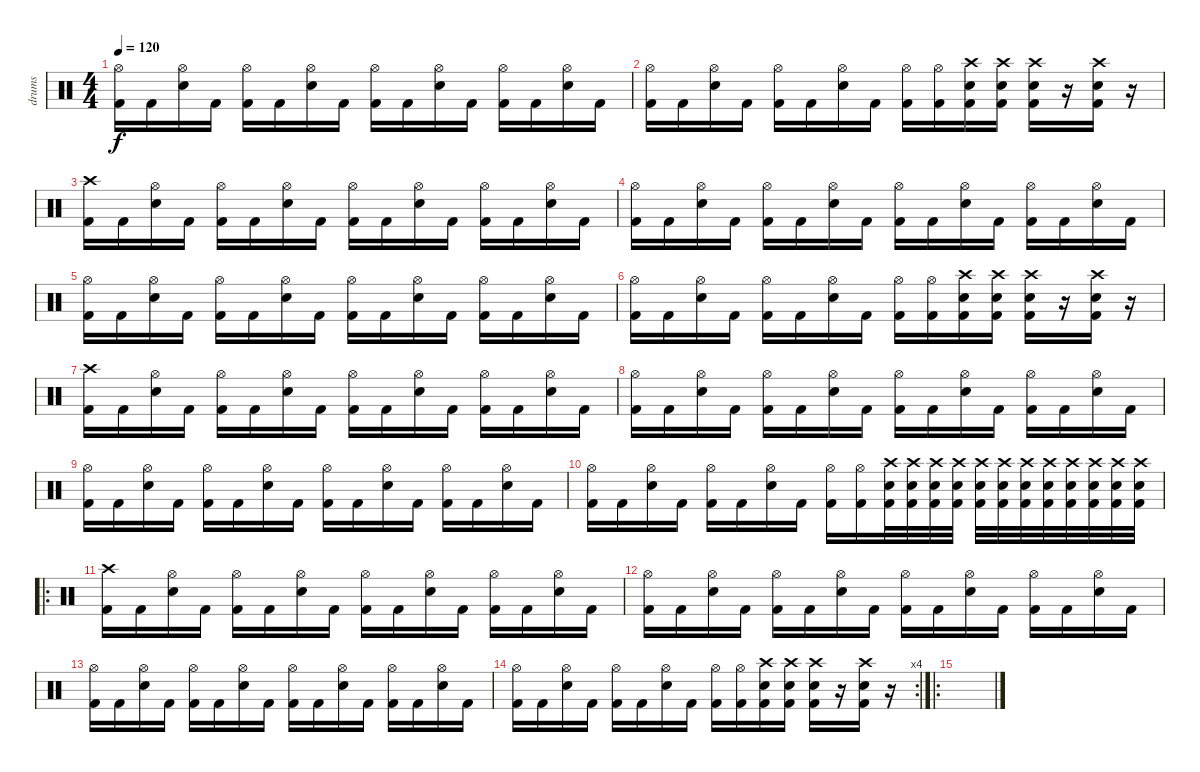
\track ("drums" "drums") {instrument percussion}
\staff {score}
\articulation defaults
\ts (4 4)
\tempo 120
\clef neutral
\ks c
("Hi-Hat (open)" "Kick (hit) 2").16{dy f} "Kick (hit) 2".16 ("Hi-Hat (open)" "Electric Snare (hit)").16 "Kick (hit) 2".16 ("Hi-Hat (open)" "Kick (hit) 2").16 "Kick (hit) 2".16 ("Hi-Hat (open)" "Electric Snare (hit)").16 "Kick (hit) 2".16 ("Hi-Hat (open)" "Kick (hit) 2").16 "Kick (hit) 2".16 ("Hi-Hat (open)" "Electric Snare (hit)").16 "Kick (hit) 2".16 ("Hi-Hat (open)" "Kick (hit) 2").16 "Kick (hit) 2".16 ("Hi-Hat (open)" "Electric Snare (hit)").16 "Kick (hit) 2".16 |
("Hi-Hat (open)" "Kick (hit) 2").16 "Kick (hit) 2".16 ("Hi-Hat (open)" "Electric Snare (hit)").16 "Kick (hit) 2".16 ("Hi-Hat (open)" "Kick (hit) 2").16 "Kick (hit) 2".16 ("Hi-Hat (open)" "Electric Snare (hit)").16 "Kick (hit) 2".16 ("Hi-Hat (open)" "Kick (hit) 2").16 ("Hi-Hat (open)" "Kick (hit) 2").16 ("Crash high (hit)" "Kick (hit) 2" "Electric Snare (hit)").16 ("Crash high (hit)" "Kick (hit) 2" "Electric Snare (hit)").16 ("Crash high (hit)" "Kick (hit) 2" "Electric Snare (hit)").16 r.16 ("Crash high (hit)" "Kick (hit) 2" "Electric Snare (hit)").16 r.16 |
("Crash high (hit)" "Kick (hit) 2").16 "Kick (hit) 2".16 ("Hi-Hat (open)" "Electric Snare (hit)").16 "Kick (hit) 2".16 ("Hi-Hat (open)" "Kick (hit) 2").16 "Kick (hit) 2".16 ("Hi-Hat (open)" "Electric Snare (hit)").16 "Kick (hit) 2".16 ("Hi-Hat (open)" "Kick (hit) 2").16 "Kick (hit) 2".16 ("Hi-Hat (open)" "Electric Snare (hit)").16 "Kick (hit) 2".16 ("Hi-Hat (open)" "Kick (hit) 2").16 "Kick (hit) 2".16 ("Hi-Hat (open)" "Electric Snare (hit)").16 "Kick (hit) 2".16 |
("Hi-Hat (open)" "Kick (hit) 2").16 "Kick (hit) 2".16 ("Hi-Hat (open)" "Electric Snare (hit)").16 "Kick (hit) 2".16 ("Hi-Hat (open)" "Kick (hit) 2").16 "Kick (hit) 2".16 ("Hi-Hat (open)" "Electric Snare (hit)").16 "Kick (hit) 2".16 ("Hi-Hat (open)" "Kick (hit) 2").16 "Kick (hit) 2".16 ("Hi-Hat (open)" "Electric Snare (hit)").16 "Kick (hit) 2".16 ("Hi-Hat (open)" "Kick (hit) 2").16 "Kick (hit) 2".16 ("Hi-Hat (open)" "Electric Snare (hit)").16 "Kick (hit) 2".16 |
("Hi-Hat (open)" "Kick (hit) 2").16 "Kick (hit) 2".16 ("Hi-Hat (open)" "Electric Snare (hit)").16 "Kick (hit) 2".16 ("Hi-Hat (open)" "Kick (hit) 2").16 "Kick (hit) 2".16 ("Hi-Hat (open)" "Electric Snare (hit)").16 "Kick (hit) 2".16 ("Hi-Hat (open)" "Kick (hit) 2").16 "Kick (hit) 2".16 ("Hi-Hat (open)" "Electric Snare (hit)").16 "Kick (hit) 2".16 ("Hi-Hat (open)" "Kick (hit) 2").16 "Kick (hit) 2".16 ("Hi-Hat (open)" "Electric Snare (hit)").16 "Kick (hit) 2".16 |
("Hi-Hat (open)" "Kick (hit) 2").16 "Kick (hit) 2".16 ("Hi-Hat (open)" "Electric Snare (hit)").16 "Kick (hit) 2".16 ("Hi-Hat (open)" "Kick (hit) 2").16 "Kick (hit) 2".16 ("Hi-Hat (open)" "Electric Snare (hit)").16 "Kick (hit) 2".16 ("Hi-Hat (open)" "Kick (hit) 2").16 ("Hi-Hat (open)" "Kick (hit) 2").16 ("Crash high (hit)" "Kick (hit) 2" "Electric Snare (hit)").16 ("Crash high (hit)" "Kick (hit) 2" "Electric Snare (hit)").16 ("Crash high (hit)" "Kick (hit) 2" "Electric Snare (hit)").16 r.16 ("Crash high (hit)" "Kick (hit) 2" "Electric Snare (hit)").16 r.16 |
("Crash high (hit)" "Kick (hit) 2").16 "Kick (hit) 2".16 ("Hi-Hat (open)" "Electric Snare (hit)").16 "Kick (hit) 2".16 ("Hi-Hat (open)" "Kick (hit) 2").16 "Kick (hit) 2".16 ("Hi-Hat (open)" "Electric Snare (hit)").16 "Kick (hit) 2".16 ("Hi-Hat (open)" "Kick (hit) 2").16 "Kick (hit) 2".16 ("Hi-Hat (open)" "Electric Snare (hit)").16 "Kick (hit) 2".16 ("Hi-Hat (open)" "Kick (hit) 2").16 "Kick (hit) 2".16 ("Hi-Hat (open)" "Electric Snare (hit)").16 "Kick (hit) 2".16 |
("Hi-Hat (open)" "Kick (hit) 2").16 "Kick (hit) 2".16 ("Hi-Hat (open)" "Electric Snare (hit)").16 "Kick (hit) 2".16 ("Hi-Hat (open)" "Kick (hit) 2").16 "Kick (hit) 2".16 ("Hi-Hat (open)" "Electric Snare (hit)").16 "Kick (hit) 2".16 ("Hi-Hat (open)" "Kick (hit) 2").16 "Kick (hit) 2".16 ("Hi-Hat (open)" "Electric Snare (hit)").16 "Kick (hit) 2".16 ("Hi-Hat (open)" "Kick (hit) 2").16 "Kick (hit) 2".16 ("Hi-Hat (open)" "Electric Snare (hit)").16 "Kick (hit) 2".16 |
("Hi-Hat (open)" "Kick (hit) 2").16 "Kick (hit) 2".16 ("Hi-Hat (open)" "Electric Snare (hit)").16 "Kick (hit) 2".16 ("Hi-Hat (open)" "Kick (hit) 2").16 "Kick (hit) 2".16 ("Hi-Hat (open)" "Electric Snare (hit)").16 "Kick (hit) 2".16 ("Hi-Hat (open)" "Kick (hit) 2").16 "Kick (hit) 2".16 ("Hi-Hat (open)" "Electric Snare (hit)").16 "Kick (hit) 2".16 ("Hi-Hat (open)" "Kick (hit) 2").16 "Kick (hit) 2".16 ("Hi-Hat (open)" "Electric Snare (hit)").16 "Kick (hit) 2".16 |
("Hi-Hat (open)" "Kick (hit) 2").16 "Kick (hit) 2".16 ("Hi-Hat (open)" "Electric Snare (hit)").16 "Kick (hit) 2".16 ("Hi-Hat (open)" "Kick (hit) 2").16 "Kick (hit) 2".16 ("Hi-Hat (open)" "Electric Snare (hit)").16 "Kick (hit) 2".16 ("Hi-Hat (open)" "Kick (hit) 2").16 ("Hi-Hat (open)" "Kick (hit) 2").16 ("Crash high (hit)" "Kick (hit) 2" "Electric Snare (hit)").32 ("Crash high (hit)" "Kick (hit) 2" "Electric Snare (hit)").32 ("Crash high (hit)" "Kick (hit) 2" "Electric Snare (hit)").32 ("Crash high (hit)" "Kick (hit) 2" "Electric Snare (hit)").32 ("Crash high (hit)" "Kick (hit) 2" "Electric Snare (hit)").32 ("Crash high (hit)" "Kick (hit) 2" "Electric Snare (hit)").32 ("Crash high (hit)" "Kick (hit) 2" "Electric Snare (hit)").32 ("Crash high (hit)" "Kick (hit) 2" "Electric Snare (hit)").32 ("Crash high (hit)" "Kick (hit) 2" "Electric Snare (hit)").32 ("Crash high (hit)" "Kick (hit) 2" "Electric Snare (hit)").32 ("Crash high (hit)" "Kick (hit) 2" "Electric Snare (hit)").32 ("Crash high (hit)" "Kick (hit) 2" "Electric Snare (hit)").32 |
\ro
("Crash high (hit)" "Kick (hit) 2").16 "Kick (hit) 2".16 ("Hi-Hat (open)" "Electric Snare (hit)").16 "Kick (hit) 2".16 ("Hi-Hat (open)" "Kick (hit) 2").16 "Kick (hit) 2".16 ("Hi-Hat (open)" "Electric Snare (hit)").16 "Kick (hit) 2".16 ("Hi-Hat (open)" "Kick (hit) 2").16 "Kick (hit) 2".16 ("Hi-Hat (open)" "Electric Snare (hit)").16 "Kick (hit) 2".16 ("Hi-Hat (open)" "Kick (hit) 2").16 "Kick (hit) 2".16 ("Hi-Hat (open)" "Electric Snare (hit)").16 "Kick (hit) 2".16 |
("Hi-Hat (open)" "Kick (hit) 2").16 "Kick (hit) 2".16 ("Hi-Hat (open)" "Electric Snare (hit)").16 "Kick (hit) 2".16 ("Hi-Hat (open)" "Kick (hit) 2").16 "Kick (hit) 2".16 ("Hi-Hat (open)" "Electric Snare (hit)").16 "Kick (hit) 2".16 ("Hi-Hat (open)" "Kick (hit) 2").16 "Kick (hit) 2".16 ("Hi-Hat (open)" "Electric Snare (hit)").16 "Kick (hit) 2".16 ("Hi-Hat (open)" "Kick (hit) 2").16 "Kick (hit) 2".16 ("Hi-Hat (open)" "Electric Snare (hit)").16 "Kick (hit) 2".16 |
("Hi-Hat (open)" "Kick (hit) 2").16 "Kick (hit) 2".16 ("Hi-Hat (open)" "Electric Snare (hit)").16 "Kick (hit) 2".16 ("Hi-Hat (open)" "Kick (hit) 2").16 "Kick (hit) 2".16 ("Hi-Hat (open)" "Electric Snare (hit)").16 "Kick (hit) 2".16 ("Hi-Hat (open)" "Kick (hit) 2").16 "Kick (hit) 2".16 ("Hi-Hat (open)" "Electric Snare (hit)").16 "Kick (hit) 2".16 ("Hi-Hat (open)" "Kick (hit) 2").16 "Kick (hit) 2".16 ("Hi-Hat (open)" "Electric Snare (hit)").16 "Kick (hit) 2".16 |
\rc 4
("Hi-Hat (open)" "Kick (hit) 2").16 "Kick (hit) 2".16 ("Hi-Hat (open)" "Electric Snare (hit)").16 "Kick (hit) 2".16 ("Hi-Hat (open)" "Kick (hit) 2").16 "Kick (hit) 2".16 ("Hi-Hat (open)" "Electric Snare (hit)").16 "Kick (hit) 2".16 ("Hi-Hat (open)" "Kick (hit) 2").16 ("Hi-Hat (open)" "Kick (hit) 2").16 ("Crash high (hit)" "Kick (hit) 2" "Electric Snare (hit)").16 ("Crash high (hit)" "Kick (hit) 2" "Electric Snare (hit)").16 ("Crash high (hit)" "Kick (hit) 2" "Electric Snare (hit)").16 r.16 ("Crash high (hit)" "Kick (hit) 2" "Electric Snare (hit)").16 r.16 |
\ro
